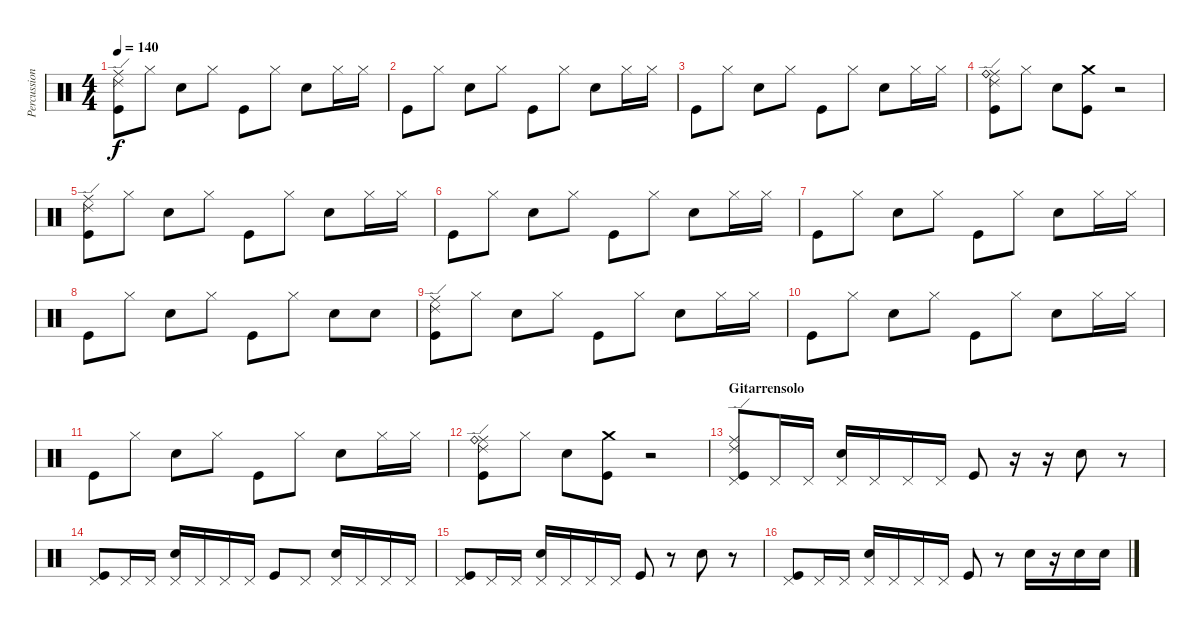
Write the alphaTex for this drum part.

\track ("Percussion" "Percussion") {instrument percussion}
\staff {score}
\articulation defaults
\ts (4 4)
\tempo 140
\clef neutral
\ks c
("Ride (middle)" "Ride (edge) 2" "Kick (hit)").8{dy f} "Hi-Hat (closed)".8 "Snare (hit) 2".8 "Hi-Hat (closed)".8 "Kick (hit)".8 "Hi-Hat (closed)".8 "Snare (hit) 2".8 "Hi-Hat (closed)".16 "Hi-Hat (closed)".16 |
"Kick (hit)".8 "Hi-Hat (closed)".8 "Snare (hit) 2".8 "Hi-Hat (closed)".8 "Kick (hit)".8 "Hi-Hat (closed)".8 "Snare (hit) 2".8 "Hi-Hat (closed)".16 "Hi-Hat (closed)".16 |
"Kick (hit)".8 "Hi-Hat (closed)".8 "Snare (hit) 2".8 "Hi-Hat (closed)".8 "Kick (hit)".8 "Hi-Hat (closed)".8 "Snare (hit) 2".8 "Hi-Hat (closed)".16 "Hi-Hat (closed)".16 |
("Ride (edge) 2" "Ride (middle)" "Ride (bell)" "Kick (hit)").8 "Hi-Hat (closed)".8 "Snare (hit) 2".8 ("Crash medium (hit)" "Kick (hit)").8 r.2 |
("Ride (middle)" "Ride (edge) 2" "Kick (hit)").8 "Hi-Hat (closed)".8 "Snare (hit) 2".8 "Hi-Hat (closed)".8 "Kick (hit)".8 "Hi-Hat (closed)".8 "Snare (hit) 2".8 "Hi-Hat (closed)".16 "Hi-Hat (closed)".16 |
"Kick (hit)".8 "Hi-Hat (closed)".8 "Snare (hit) 2".8 "Hi-Hat (closed)".8 "Kick (hit)".8 "Hi-Hat (closed)".8 "Snare (hit) 2".8 "Hi-Hat (closed)".16 "Hi-Hat (closed)".16 |
"Kick (hit)".8 "Hi-Hat (closed)".8 "Snare (hit) 2".8 "Hi-Hat (closed)".8 "Kick (hit)".8 "Hi-Hat (closed)".8 "Snare (hit) 2".8 "Hi-Hat (closed)".16 "Hi-Hat (closed)".16 |
"Kick (hit)".8 "Hi-Hat (closed)".8 "Snare (hit) 2".8 "Hi-Hat (closed)".8 "Kick (hit)".8 "Hi-Hat (closed)".8 "Snare (hit) 2".8 "Snare (hit) 2".8 |
("Ride (middle)" "Ride (edge) 2" "Kick (hit)").8 "Hi-Hat (closed)".8 "Snare (hit) 2".8 "Hi-Hat (closed)".8 "Kick (hit)".8 "Hi-Hat (closed)".8 "Snare (hit) 2".8 "Hi-Hat (closed)".16 "Hi-Hat (closed)".16 |
"Kick (hit)".8 "Hi-Hat (closed)".8 "Snare (hit) 2".8 "Hi-Hat (closed)".8 "Kick (hit)".8 "Hi-Hat (closed)".8 "Snare (hit) 2".8 "Hi-Hat (closed)".16 "Hi-Hat (closed)".16 |
"Kick (hit)".8 "Hi-Hat (closed)".8 "Snare (hit) 2".8 "Hi-Hat (closed)".8 "Kick (hit)".8 "Hi-Hat (closed)".8 "Snare (hit) 2".8 "Hi-Hat (closed)".16 "Hi-Hat (closed)".16 |
("Ride (edge) 2" "Ride (middle)" "Ride (bell)" "Kick (hit)").8 "Hi-Hat (closed)".8 "Snare (hit) 2".8 ("Crash medium (hit)" "Kick (hit)").8 r.2 |
\section ("" "Gitarrensolo")
("Ride (middle)" "Ride (edge) 2" "Pedal Hi-Hat (hit)" "Kick (hit)").8 "Pedal Hi-Hat (hit)".16 "Pedal Hi-Hat (hit)".16 ("Pedal Hi-Hat (hit)" "Snare (hit) 2").16 "Pedal Hi-Hat (hit)".16 "Pedal Hi-Hat (hit)".16 "Pedal Hi-Hat (hit)".16 "Kick (hit)".8 r.16 r.16 "Snare (hit) 2".8 r.8 |
("Pedal Hi-Hat (hit)" "Kick (hit)").8 "Pedal Hi-Hat (hit)".16 "Pedal Hi-Hat (hit)".16 ("Pedal Hi-Hat (hit)" "Snare (hit) 2").16 "Pedal Hi-Hat (hit)".16 "Pedal Hi-Hat (hit)".16 "Pedal Hi-Hat (hit)".16 "Kick (hit)".8 "Pedal Hi-Hat (hit)".8 ("Pedal Hi-Hat (hit)" "Snare (hit) 2").16 "Pedal Hi-Hat (hit)".16 "Pedal Hi-Hat (hit)".16 "Pedal Hi-Hat (hit)".16 |
("Pedal Hi-Hat (hit)" "Kick (hit)").8 "Pedal Hi-Hat (hit)".16 "Pedal Hi-Hat (hit)".16 ("Pedal Hi-Hat (hit)" "Snare (hit) 2").16 "Pedal Hi-Hat (hit)".16 "Pedal Hi-Hat (hit)".16 "Pedal Hi-Hat (hit)".16 "Kick (hit)".8 r.8 "Snare (hit) 2".8 r.8 |
("Pedal Hi-Hat (hit)" "Kick (hit)").8 "Pedal Hi-Hat (hit)".16 "Pedal Hi-Hat (hit)".16 ("Pedal Hi-Hat (hit)" "Snare (hit) 2").16 "Pedal Hi-Hat (hit)".16 "Pedal Hi-Hat (hit)".16 "Pedal Hi-Hat (hit)".16 "Kick (hit)".8 r.8 "Snare (hit) 2".16 r.16 "Snare (hit) 2".16 "Snare (hit) 2".16
